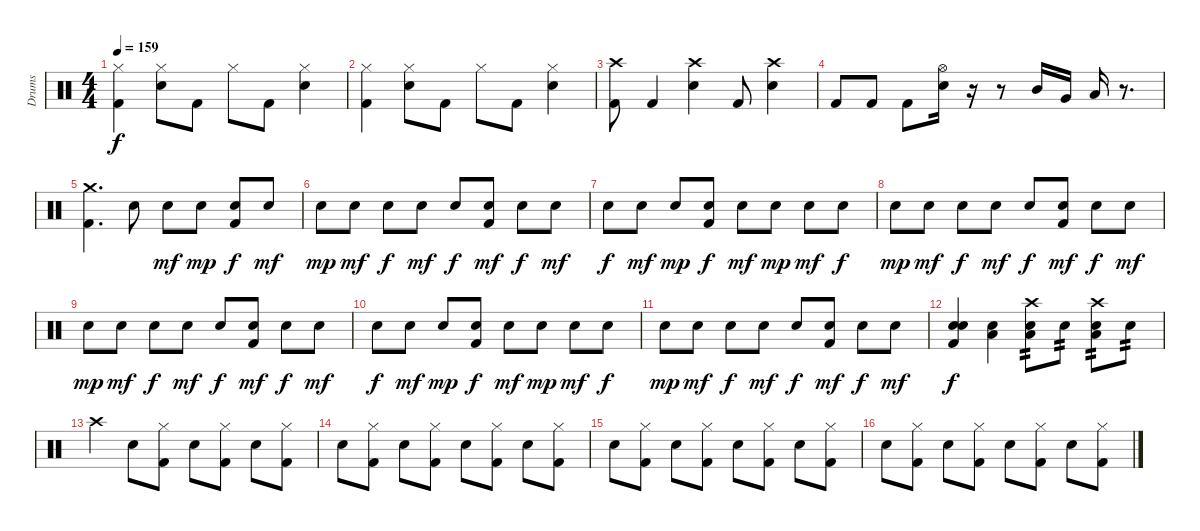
\track ("Drums" "Drums") {instrument percussion}
\staff {score}
\articulation defaults
\ts (4 4)
\tempo 159
\clef neutral
\ks c
("Hi-Hat (closed)" "Kick (hit) 2").4{dy f} ("Hi-Hat (closed)" "Electric Snare (hit)").8 "Kick (hit) 2".8 "Hi-Hat (closed)".8 "Kick (hit) 2".8 ("Hi-Hat (closed)" "Electric Snare (hit)").4 |
("Hi-Hat (closed)" "Kick (hit) 2").4 ("Hi-Hat (closed)" "Electric Snare (hit)").8 "Kick (hit) 2".8 "Hi-Hat (closed)".8 "Kick (hit) 2".8 ("Hi-Hat (closed)" "Electric Snare (hit)").4 |
("Crash high (hit)" "Kick (hit) 2").8 "Kick (hit) 2".4 ("Crash high (hit)" "Electric Snare (hit)").4 "Kick (hit) 2".8 ("Crash high (hit)" "Electric Snare (hit)").4 |
"Kick (hit) 2".8 "Kick (hit) 2".8 "Kick (hit) 2".8 ("Hi-Hat (open)" "Electric Snare (hit)").16 r.16 r.8 "Mid Tom (hit)".16 "Very Low Tom (hit)".16 "Low Floor Tom (hit)".16 r.8{d} |
("Crash medium (hit)" "Kick (hit) 2").4{d} "Electric Snare (hit)".8 "Electric Snare (hit)".8{dy mf} "Electric Snare (hit)".8{dy mp} ("Electric Snare (hit)" "Kick (hit) 2").8{dy f} "Electric Snare (hit)".8{dy mf} |
"Electric Snare (hit)".8{dy mp} "Electric Snare (hit)".8{dy mf} "Electric Snare (hit)".8{dy f} "Electric Snare (hit)".8{dy mf} "Electric Snare (hit)".8{dy f} ("Electric Snare (hit)" "Kick (hit) 2").8{dy mf} "Electric Snare (hit)".8{dy f} "Electric Snare (hit)".8{dy mf} |
"Electric Snare (hit)".8{dy f} "Electric Snare (hit)".8{dy mf} "Electric Snare (hit)".8{dy mp} ("Electric Snare (hit)" "Kick (hit) 2").8{dy f} "Electric Snare (hit)".8{dy mf} "Electric Snare (hit)".8{dy mp} "Electric Snare (hit)".8{dy mf} "Electric Snare (hit)".8{dy f} |
"Electric Snare (hit)".8{dy mp} "Electric Snare (hit)".8{dy mf} "Electric Snare (hit)".8{dy f} "Electric Snare (hit)".8{dy mf} "Electric Snare (hit)".8{dy f} ("Electric Snare (hit)" "Kick (hit) 2").8{dy mf} "Electric Snare (hit)".8{dy f} "Electric Snare (hit)".8{dy mf} |
"Electric Snare (hit)".8{dy mp} "Electric Snare (hit)".8{dy mf} "Electric Snare (hit)".8{dy f} "Electric Snare (hit)".8{dy mf} "Electric Snare (hit)".8{dy f} ("Electric Snare (hit)" "Kick (hit) 2").8{dy mf} "Electric Snare (hit)".8{dy f} "Electric Snare (hit)".8{dy mf} |
"Electric Snare (hit)".8{dy f} "Electric Snare (hit)".8{dy mf} "Electric Snare (hit)".8{dy mp} ("Electric Snare (hit)" "Kick (hit) 2").8{dy f} "Electric Snare (hit)".8{dy mf} "Electric Snare (hit)".8{dy mp} "Electric Snare (hit)".8{dy mf} "Electric Snare (hit)".8{dy f} |
"Electric Snare (hit)".8{dy mp} "Electric Snare (hit)".8{dy mf} "Electric Snare (hit)".8{dy f} "Electric Snare (hit)".8{dy mf} "Electric Snare (hit)".8{dy f} ("Electric Snare (hit)" "Kick (hit) 2").8{dy mf} "Electric Snare (hit)".8{dy f} "Electric Snare (hit)".8{dy mf} |
("Electric Snare (hit)" "Electric Snare (hit)" "Kick (hit) 2").4{dy f} ("Low Tom (hit)" "Electric Snare (hit)").4 ("Low Tom (hit)" "Crash high (hit)" "Electric Snare (hit)").8{tp 2} "Electric Snare (hit)".8{tp 2} ("Low Tom (hit)" "Crash high (hit)" "Electric Snare (hit)").8{tp 2} "Electric Snare (hit)".8{tp 2} |
"Crash high (hit)".4 "Electric Snare (hit)".8 ("Kick (hit) 2" "Hi-Hat (closed)").8 "Electric Snare (hit)".8 ("Kick (hit) 2" "Hi-Hat (closed)").8 "Electric Snare (hit)".8 ("Kick (hit) 2" "Hi-Hat (closed)").8 |
"Electric Snare (hit)".8 ("Kick (hit) 2" "Hi-Hat (closed)").8 "Electric Snare (hit)".8 ("Kick (hit) 2" "Hi-Hat (closed)").8 "Electric Snare (hit)".8 ("Kick (hit) 2" "Hi-Hat (closed)").8 "Electric Snare (hit)".8 ("Kick (hit) 2" "Hi-Hat (closed)").8 |
"Electric Snare (hit)".8 ("Kick (hit) 2" "Hi-Hat (closed)").8 "Electric Snare (hit)".8 ("Kick (hit) 2" "Hi-Hat (closed)").8 "Electric Snare (hit)".8 ("Kick (hit) 2" "Hi-Hat (closed)").8 "Electric Snare (hit)".8 ("Kick (hit) 2" "Hi-Hat (closed)").8 |
"Electric Snare (hit)".8 ("Kick (hit) 2" "Hi-Hat (closed)").8 "Electric Snare (hit)".8 ("Kick (hit) 2" "Hi-Hat (closed)").8 "Electric Snare (hit)".8 ("Kick (hit) 2" "Hi-Hat (closed)").8 "Electric Snare (hit)".8 ("Kick (hit) 2" "Hi-Hat (closed)").8
